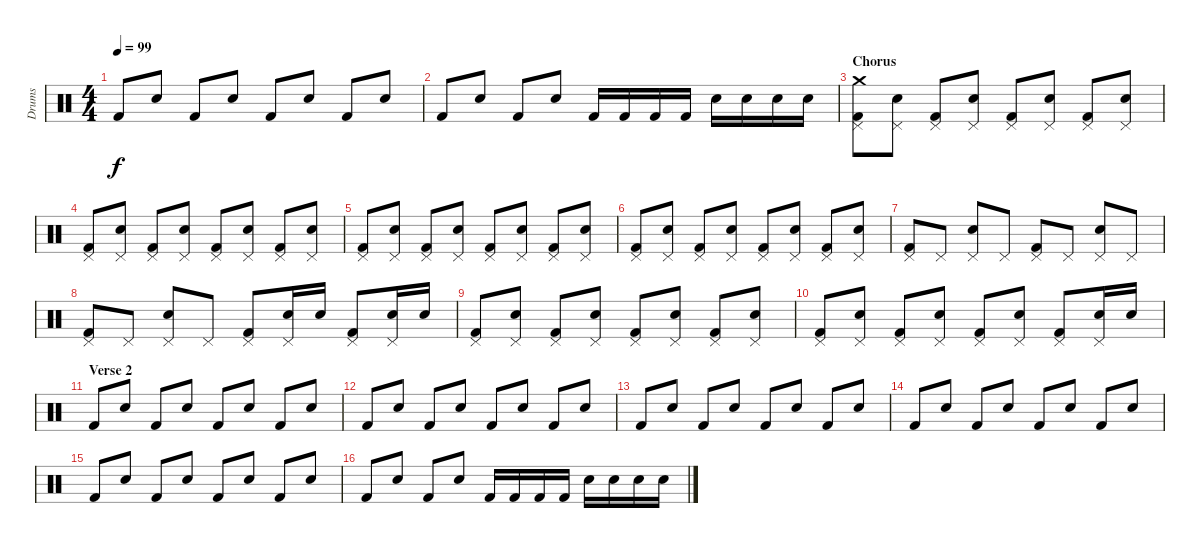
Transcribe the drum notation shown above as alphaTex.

\track ("Drums" "Drums") {instrument percussion}
\staff {score}
\articulation defaults
\ts (4 4)
\tempo 99
\clef neutral
\ks c "Kick (hit) 2".8{dy f} "Snare (hit) 2".8 "Kick (hit) 2".8 "Snare (hit) 2".8 "Kick (hit) 2".8 "Snare (hit) 2".8 "Kick (hit) 2".8 "Snare (hit) 2".8
|
"Kick (hit) 2".8 "Snare (hit) 2".8 "Kick (hit) 2".8 "Snare (hit) 2".8 "Kick (hit) 2".16 "Kick (hit) 2".16 "Kick (hit) 2".16 "Kick (hit) 2".16 "Snare (hit) 2".16 "Snare (hit) 2".16 "Snare (hit) 2".16 "Snare (hit) 2".16 |
\section ("" "Chorus")
("Pedal Hi-Hat (hit)" "Crash medium (hit)" "Kick (hit) 2").8 ("Pedal Hi-Hat (hit)" "Snare (hit) 2").8 ("Pedal Hi-Hat (hit)" "Kick (hit) 2").8 ("Pedal Hi-Hat (hit)" "Snare (hit) 2").8 ("Pedal Hi-Hat (hit)" "Kick (hit) 2").8 ("Pedal Hi-Hat (hit)" "Snare (hit) 2").8 ("Pedal Hi-Hat (hit)" "Kick (hit) 2").8 ("Pedal Hi-Hat (hit)" "Snare (hit) 2").8 |
("Pedal Hi-Hat (hit)" "Kick (hit) 2").8 ("Pedal Hi-Hat (hit)" "Snare (hit) 2").8 ("Pedal Hi-Hat (hit)" "Kick (hit) 2").8 ("Pedal Hi-Hat (hit)" "Snare (hit) 2").8 ("Pedal Hi-Hat (hit)" "Kick (hit) 2").8 ("Pedal Hi-Hat (hit)" "Snare (hit) 2").8 ("Pedal Hi-Hat (hit)" "Kick (hit) 2").8 ("Pedal Hi-Hat (hit)" "Snare (hit) 2").8 |
("Pedal Hi-Hat (hit)" "Kick (hit) 2").8 ("Pedal Hi-Hat (hit)" "Snare (hit) 2").8 ("Pedal Hi-Hat (hit)" "Kick (hit) 2").8 ("Pedal Hi-Hat (hit)" "Snare (hit) 2").8 ("Pedal Hi-Hat (hit)" "Kick (hit) 2").8 ("Pedal Hi-Hat (hit)" "Snare (hit) 2").8 ("Pedal Hi-Hat (hit)" "Kick (hit) 2").8 ("Pedal Hi-Hat (hit)" "Snare (hit) 2").8 |
("Pedal Hi-Hat (hit)" "Kick (hit) 2").8 ("Pedal Hi-Hat (hit)" "Snare (hit) 2").8 ("Pedal Hi-Hat (hit)" "Kick (hit) 2").8 ("Pedal Hi-Hat (hit)" "Snare (hit) 2").8 ("Pedal Hi-Hat (hit)" "Kick (hit) 2").8 ("Pedal Hi-Hat (hit)" "Snare (hit) 2").8 ("Pedal Hi-Hat (hit)" "Kick (hit) 2").8 ("Pedal Hi-Hat (hit)" "Snare (hit) 2").8 |
("Pedal Hi-Hat (hit)" "Kick (hit) 2").8 "Pedal Hi-Hat (hit)".8 ("Pedal Hi-Hat (hit)" "Snare (hit) 2").8 "Pedal Hi-Hat (hit)".8 ("Pedal Hi-Hat (hit)" "Kick (hit) 2").8 "Pedal Hi-Hat (hit)".8 ("Pedal Hi-Hat (hit)" "Snare (hit) 2").8 "Pedal Hi-Hat (hit)".8 |
("Pedal Hi-Hat (hit)" "Kick (hit) 2").8 "Pedal Hi-Hat (hit)".8 ("Pedal Hi-Hat (hit)" "Snare (hit) 2").8 "Pedal Hi-Hat (hit)".8 ("Pedal Hi-Hat (hit)" "Kick (hit) 2").8 ("Pedal Hi-Hat (hit)" "Snare (hit) 2").16 "Snare (hit) 2".16 ("Pedal Hi-Hat (hit)" "Kick (hit) 2").8 ("Pedal Hi-Hat (hit)" "Snare (hit) 2").16 "Snare (hit) 2".16 |
("Pedal Hi-Hat (hit)" "Kick (hit) 2").8 ("Pedal Hi-Hat (hit)" "Snare (hit) 2").8 ("Pedal Hi-Hat (hit)" "Kick (hit) 2").8 ("Pedal Hi-Hat (hit)" "Snare (hit) 2").8 ("Pedal Hi-Hat (hit)" "Kick (hit) 2").8 ("Pedal Hi-Hat (hit)" "Snare (hit) 2").8 ("Pedal Hi-Hat (hit)" "Kick (hit) 2").8 ("Pedal Hi-Hat (hit)" "Snare (hit) 2").8 |
("Pedal Hi-Hat (hit)" "Kick (hit) 2").8 ("Pedal Hi-Hat (hit)" "Snare (hit) 2").8 ("Pedal Hi-Hat (hit)" "Kick (hit) 2").8 ("Pedal Hi-Hat (hit)" "Snare (hit) 2").8 ("Pedal Hi-Hat (hit)" "Kick (hit) 2").8 ("Pedal Hi-Hat (hit)" "Snare (hit) 2").8 ("Pedal Hi-Hat (hit)" "Kick (hit) 2").8 ("Pedal Hi-Hat (hit)" "Snare (hit) 2").16 "Snare (hit) 2".16 |
\section ("" "Verse 2")
"Kick (hit) 2".8 "Snare (hit) 2".8 "Kick (hit) 2".8 "Snare (hit) 2".8 "Kick (hit) 2".8 "Snare (hit) 2".8 "Kick (hit) 2".8 "Snare (hit) 2".8 |
"Kick (hit) 2".8 "Snare (hit) 2".8 "Kick (hit) 2".8 "Snare (hit) 2".8 "Kick (hit) 2".8 "Snare (hit) 2".8 "Kick (hit) 2".8 "Snare (hit) 2".8 |
"Kick (hit) 2".8 "Snare (hit) 2".8 "Kick (hit) 2".8 "Snare (hit) 2".8 "Kick (hit) 2".8 "Snare (hit) 2".8 "Kick (hit) 2".8 "Snare (hit) 2".8 |
"Kick (hit) 2".8 "Snare (hit) 2".8 "Kick (hit) 2".8 "Snare (hit) 2".8 "Kick (hit) 2".8 "Snare (hit) 2".8 "Kick (hit) 2".8 "Snare (hit) 2".8 |
"Kick (hit) 2".8 "Snare (hit) 2".8 "Kick (hit) 2".8 "Snare (hit) 2".8 "Kick (hit) 2".8 "Snare (hit) 2".8 "Kick (hit) 2".8 "Snare (hit) 2".8 |
"Kick (hit) 2".8 "Snare (hit) 2".8 "Kick (hit) 2".8 "Snare (hit) 2".8 "Kick (hit) 2".16 "Kick (hit) 2".16 "Kick (hit) 2".16 "Kick (hit) 2".16 "Snare (hit) 2".16 "Snare (hit) 2".16 "Snare (hit) 2".16 "Snare (hit) 2".16
